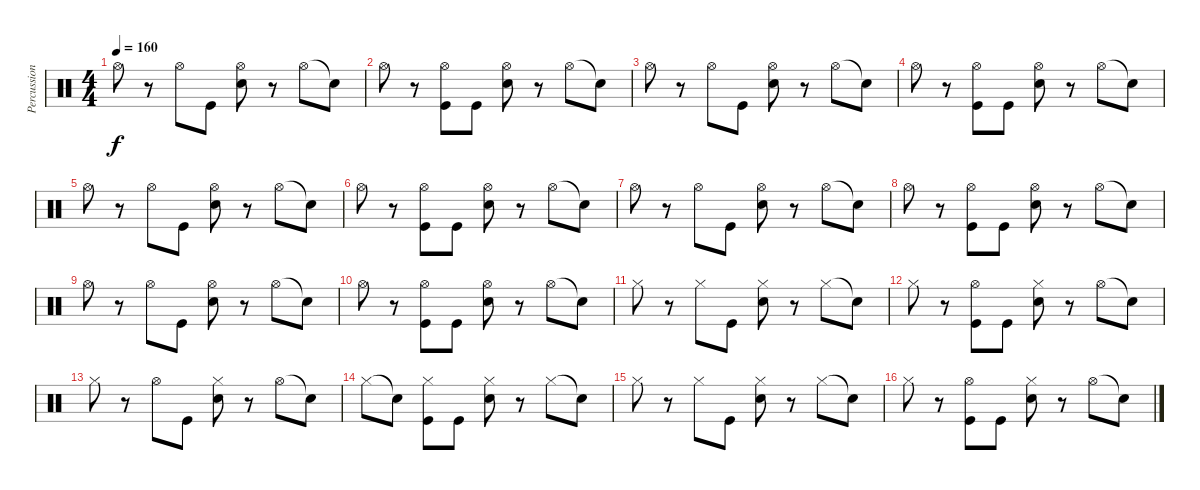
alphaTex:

\track ("Percussion" "Percussion") {instrument percussion}
\staff {score}
\articulation defaults
\ts (4 4)
\tempo 160
\clef neutral
\ks c "Hi-Hat (open)".8{dy f}
r.8 "Hi-Hat (open)".8 "Kick (hit)".8 ("Hi-Hat (open)" "Snare (hit) 2").8 r.8 "Hi-Hat (open)".8 "Snare (hit)"{t}.8 |
"Hi-Hat (open)".8 r.8 ("Hi-Hat (open)" "Kick (hit)").8 "Kick (hit)".8 ("Hi-Hat (open)" "Snare (hit) 2").8 r.8 "Hi-Hat (open)".8 "Snare (hit)"{t}.8 |
"Hi-Hat (open)".8 r.8 "Hi-Hat (open)".8 "Kick (hit)".8 ("Hi-Hat (open)" "Snare (hit) 2").8 r.8 "Hi-Hat (open)".8 "Snare (hit)"{t}.8 |
"Hi-Hat (open)".8 r.8 ("Hi-Hat (open)" "Kick (hit)").8 "Kick (hit)".8 ("Hi-Hat (open)" "Snare (hit) 2").8 r.8 "Hi-Hat (open)".8 "Snare (hit)"{t}.8 |
"Hi-Hat (open)".8 r.8 "Hi-Hat (open)".8 "Kick (hit)".8 ("Hi-Hat (open)" "Snare (hit) 2").8 r.8 "Hi-Hat (open)".8 "Snare (hit)"{t}.8 |
"Hi-Hat (open)".8 r.8 ("Hi-Hat (open)" "Kick (hit)").8 "Kick (hit)".8 ("Hi-Hat (open)" "Snare (hit) 2").8 r.8 "Hi-Hat (open)".8 "Snare (hit)"{t}.8 |
"Hi-Hat (open)".8 r.8 "Hi-Hat (open)".8 "Kick (hit)".8 ("Hi-Hat (open)" "Snare (hit) 2").8 r.8 "Hi-Hat (open)".8 "Snare (hit)"{t}.8 |
"Hi-Hat (open)".8 r.8 ("Hi-Hat (open)" "Kick (hit)").8 "Kick (hit)".8 ("Hi-Hat (open)" "Snare (hit) 2").8 r.8 "Hi-Hat (open)".8 "Snare (hit)"{t}.8 |
"Hi-Hat (open)".8 r.8 "Hi-Hat (open)".8 "Kick (hit)".8 ("Hi-Hat (open)" "Snare (hit) 2").8 r.8 "Hi-Hat (open)".8 "Snare (hit)"{t}.8 |
"Hi-Hat (open)".8 r.8 ("Hi-Hat (open)" "Kick (hit)").8 "Kick (hit)".8 ("Hi-Hat (open)" "Snare (hit) 2").8 r.8 "Hi-Hat (open)".8 "Snare (hit)"{t}.8 |
"Hi-Hat (closed)".8 r.8 "Hi-Hat (closed)".8 "Kick (hit)".8 ("Hi-Hat (closed)" "Snare (hit) 2").8 r.8 "Hi-Hat (closed)".8 "Snare (hit)"{t}.8 |
"Hi-Hat (closed)".8 r.8 ("Hi-Hat (open)" "Kick (hit)").8 "Kick (hit)".8 ("Hi-Hat (closed)" "Snare (hit) 2").8 r.8 "Hi-Hat (open)".8 "Snare (hit)"{t}.8 |
"Hi-Hat (closed)".8 r.8 "Hi-Hat (open)".8 "Kick (hit)".8 ("Hi-Hat (closed)" "Snare (hit) 2").8 r.8 "Hi-Hat (open)".8 "Snare (hit)"{t}.8 |
"Hi-Hat (closed)".8 "Snare (hit)"{t}.8 ("Hi-Hat (closed)" "Kick (hit)").8 "Kick (hit)".8 ("Hi-Hat (closed)" "Snare (hit) 2").8 r.8 "Hi-Hat (closed)".8 "Snare (hit)"{t}.8 |
"Hi-Hat (closed)".8 r.8 "Hi-Hat (closed)".8 "Kick (hit)".8 ("Hi-Hat (closed)" "Snare (hit) 2").8 r.8 "Hi-Hat (closed)".8 "Snare (hit)"{t}.8 |
"Hi-Hat (closed)".8 r.8 ("Hi-Hat (open)" "Kick (hit)").8 "Kick (hit)".8 ("Hi-Hat (closed)" "Snare (hit) 2").8 r.8 "Hi-Hat (open)".8 "Snare (hit)"{t}.8
